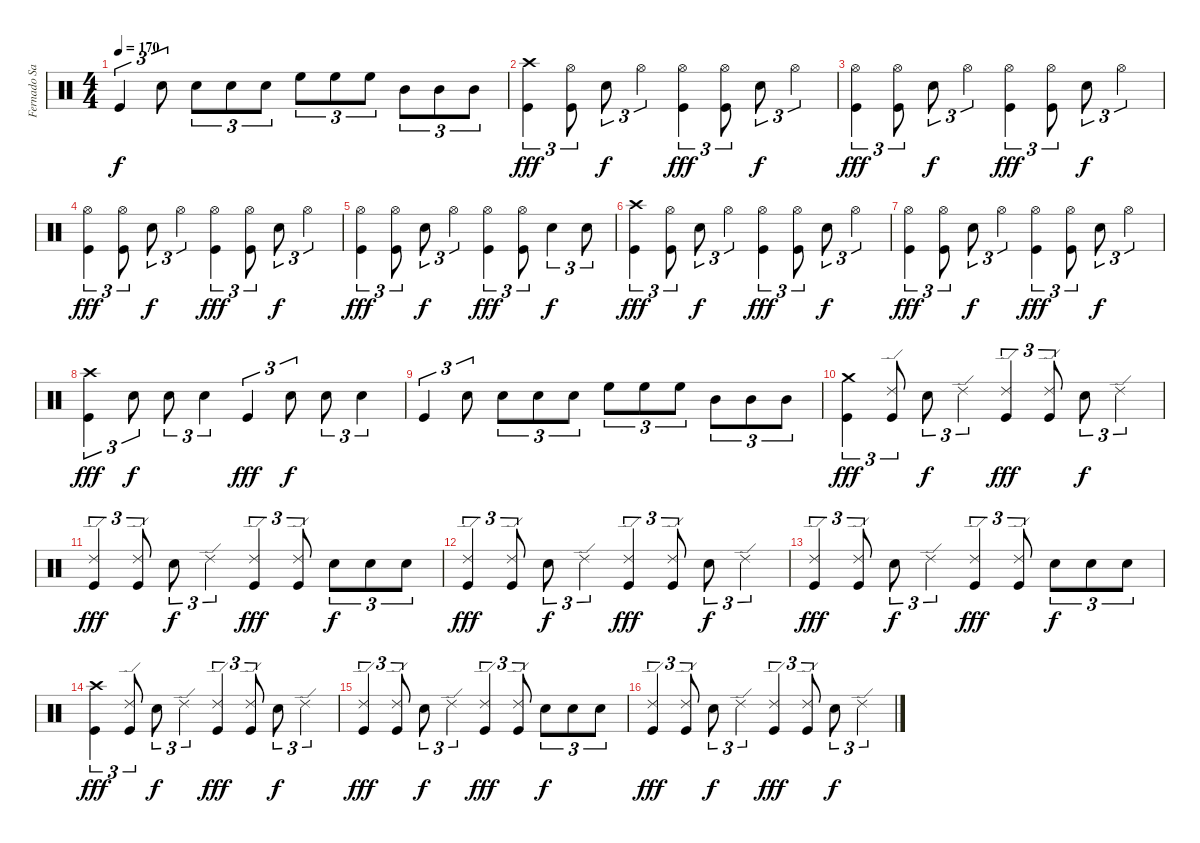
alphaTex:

\track ("Fernado Sanchez" "Fernado Sa") {instrument percussion}
\staff {score}
\articulation defaults
\ts (4 4)
\tempo 170
\clef neutral
\ks c "Kick (hit)".4{tu (3 2) dy f} "Electric Snare (hit)".8{tu (3 2)} "Electric Snare (hit)".8{tu (3 2)} "Electric Snare (hit)".8{tu (3 2)} "Electric Snare (hit)".8{tu (3 2)} "High Floor Tom (hit)".8{tu (3 2)} "High Floor Tom (hit)".8{tu (3 2)} "High Floor Tom (hit)".8{tu (3 2)} "Mid Tom (hit)".8{tu (3 2)} "Mid Tom (hit)".8{tu (3 2)} "Mid Tom (hit)".8{tu (3 2)}
|
("Crash high (hit)" "Kick (hit)").4{tu (3 2) dy fff} ("Hi-Hat (open)" "Kick (hit)").8{tu (3 2)} "Electric Snare (hit)".8{tu (3 2) dy f} "Hi-Hat (open)".4{tu (3 2)} ("Hi-Hat (open)" "Kick (hit)").4{tu (3 2) dy fff} ("Hi-Hat (open)" "Kick (hit)").8{tu (3 2)} "Electric Snare (hit)".8{tu (3 2) dy f} "Hi-Hat (open)".4{tu (3 2)} |
("Hi-Hat (open)" "Kick (hit)").4{tu (3 2) dy fff} ("Hi-Hat (open)" "Kick (hit)").8{tu (3 2)} "Electric Snare (hit)".8{tu (3 2) dy f} "Hi-Hat (open)".4{tu (3 2)} ("Hi-Hat (open)" "Kick (hit)").4{tu (3 2) dy fff} ("Hi-Hat (open)" "Kick (hit)").8{tu (3 2)} "Electric Snare (hit)".8{tu (3 2) dy f} "Hi-Hat (open)".4{tu (3 2)} |
("Hi-Hat (open)" "Kick (hit)").4{tu (3 2) dy fff} ("Hi-Hat (open)" "Kick (hit)").8{tu (3 2)} "Electric Snare (hit)".8{tu (3 2) dy f} "Hi-Hat (open)".4{tu (3 2)} ("Hi-Hat (open)" "Kick (hit)").4{tu (3 2) dy fff} ("Hi-Hat (open)" "Kick (hit)").8{tu (3 2)} "Electric Snare (hit)".8{tu (3 2) dy f} "Hi-Hat (open)".4{tu (3 2)} |
("Hi-Hat (open)" "Kick (hit)").4{tu (3 2) dy fff} ("Hi-Hat (open)" "Kick (hit)").8{tu (3 2)} "Electric Snare (hit)".8{tu (3 2) dy f} "Hi-Hat (open)".4{tu (3 2)} ("Hi-Hat (open)" "Kick (hit)").4{tu (3 2) dy fff} ("Hi-Hat (open)" "Kick (hit)").8{tu (3 2)} "Electric Snare (hit)".4{tu (3 2) dy f} "Electric Snare (hit)".8{tu (3 2)} |
("Crash high (hit)" "Kick (hit)").4{tu (3 2) dy fff} ("Hi-Hat (open)" "Kick (hit)").8{tu (3 2)} "Electric Snare (hit)".8{tu (3 2) dy f} "Hi-Hat (open)".4{tu (3 2)} ("Hi-Hat (open)" "Kick (hit)").4{tu (3 2) dy fff} ("Hi-Hat (open)" "Kick (hit)").8{tu (3 2)} "Electric Snare (hit)".8{tu (3 2) dy f} "Hi-Hat (open)".4{tu (3 2)} |
("Hi-Hat (open)" "Kick (hit)").4{tu (3 2) dy fff} ("Hi-Hat (open)" "Kick (hit)").8{tu (3 2)} "Electric Snare (hit)".8{tu (3 2) dy f} "Hi-Hat (open)".4{tu (3 2)} ("Hi-Hat (open)" "Kick (hit)").4{tu (3 2) dy fff} ("Hi-Hat (open)" "Kick (hit)").8{tu (3 2)} "Electric Snare (hit)".8{tu (3 2) dy f} "Hi-Hat (open)".4{tu (3 2)} |
("Crash high (hit)" "Kick (hit)").4{tu (3 2) dy fff} "Electric Snare (hit)".8{tu (3 2) dy f} "Electric Snare (hit)".8{tu (3 2)} "Electric Snare (hit)".4{tu (3 2)} "Kick (hit)".4{tu (3 2) dy fff} "Electric Snare (hit)".8{tu (3 2) dy f} "Electric Snare (hit)".8{tu (3 2)} "Electric Snare (hit)".4{tu (3 2)} |
"Kick (hit)".4{tu (3 2)} "Electric Snare (hit)".8{tu (3 2)} "Electric Snare (hit)".8{tu (3 2)} "Electric Snare (hit)".8{tu (3 2)} "Electric Snare (hit)".8{tu (3 2)} "High Floor Tom (hit)".8{tu (3 2)} "High Floor Tom (hit)".8{tu (3 2)} "High Floor Tom (hit)".8{tu (3 2)} "Mid Tom (hit)".8{tu (3 2)} "Mid Tom (hit)".8{tu (3 2)} "Mid Tom (hit)".8{tu (3 2)} |
("Crash medium (hit)" "Kick (hit)").4{tu (3 2) dy fff} ("Ride (edge) 2" "Kick (hit)").8{tu (3 2)} "Electric Snare (hit)".8{tu (3 2) dy f} "Ride (edge) 2".4{tu (3 2)} ("Ride (edge) 2" "Kick (hit)").4{tu (3 2) dy fff} ("Ride (edge) 2" "Kick (hit)").8{tu (3 2)} "Electric Snare (hit)".8{tu (3 2) dy f} "Ride (edge) 2".4{tu (3 2)} |
("Ride (edge) 2" "Kick (hit)").4{tu (3 2) dy fff} ("Ride (edge) 2" "Kick (hit)").8{tu (3 2)} "Electric Snare (hit)".8{tu (3 2) dy f} "Ride (edge) 2".4{tu (3 2)} ("Ride (edge) 2" "Kick (hit)").4{tu (3 2) dy fff} ("Ride (edge) 2" "Kick (hit)").8{tu (3 2)} "Electric Snare (hit)".8{tu (3 2) dy f} "Electric Snare (hit)".8{tu (3 2)} "Electric Snare (hit)".8{tu (3 2)} |
("Ride (edge) 2" "Kick (hit)").4{tu (3 2) dy fff} ("Ride (edge) 2" "Kick (hit)").8{tu (3 2)} "Electric Snare (hit)".8{tu (3 2) dy f} "Ride (edge) 2".4{tu (3 2)} ("Ride (edge) 2" "Kick (hit)").4{tu (3 2) dy fff} ("Ride (edge) 2" "Kick (hit)").8{tu (3 2)} "Electric Snare (hit)".8{tu (3 2) dy f} "Ride (edge) 2".4{tu (3 2)} |
("Ride (edge) 2" "Kick (hit)").4{tu (3 2) dy fff} ("Ride (edge) 2" "Kick (hit)").8{tu (3 2)} "Electric Snare (hit)".8{tu (3 2) dy f} "Ride (edge) 2".4{tu (3 2)} ("Ride (edge) 2" "Kick (hit)").4{tu (3 2) dy fff} ("Ride (edge) 2" "Kick (hit)").8{tu (3 2)} "Electric Snare (hit)".8{tu (3 2) dy f} "Electric Snare (hit)".8{tu (3 2)} "Electric Snare (hit)".8{tu (3 2)} |
("Crash high (hit)" "Kick (hit)").4{tu (3 2) dy fff} ("Ride (edge) 2" "Kick (hit)").8{tu (3 2)} "Electric Snare (hit)".8{tu (3 2) dy f} "Ride (edge) 2".4{tu (3 2)} ("Ride (edge) 2" "Kick (hit)").4{tu (3 2) dy fff} ("Ride (edge) 2" "Kick (hit)").8{tu (3 2)} "Electric Snare (hit)".8{tu (3 2) dy f} "Ride (edge) 2".4{tu (3 2)} |
("Ride (edge) 2" "Kick (hit)").4{tu (3 2) dy fff} ("Ride (edge) 2" "Kick (hit)").8{tu (3 2)} "Electric Snare (hit)".8{tu (3 2) dy f} "Ride (edge) 2".4{tu (3 2)} ("Ride (edge) 2" "Kick (hit)").4{tu (3 2) dy fff} ("Ride (edge) 2" "Kick (hit)").8{tu (3 2)} "Electric Snare (hit)".8{tu (3 2) dy f} "Electric Snare (hit)".8{tu (3 2)} "Electric Snare (hit)".8{tu (3 2)} |
("Ride (edge) 2" "Kick (hit)").4{tu (3 2) dy fff} ("Ride (edge) 2" "Kick (hit)").8{tu (3 2)} "Electric Snare (hit)".8{tu (3 2) dy f} "Ride (edge) 2".4{tu (3 2)} ("Ride (edge) 2" "Kick (hit)").4{tu (3 2) dy fff} ("Ride (edge) 2" "Kick (hit)").8{tu (3 2)} "Electric Snare (hit)".8{tu (3 2) dy f} "Ride (edge) 2".4{tu (3 2)}
